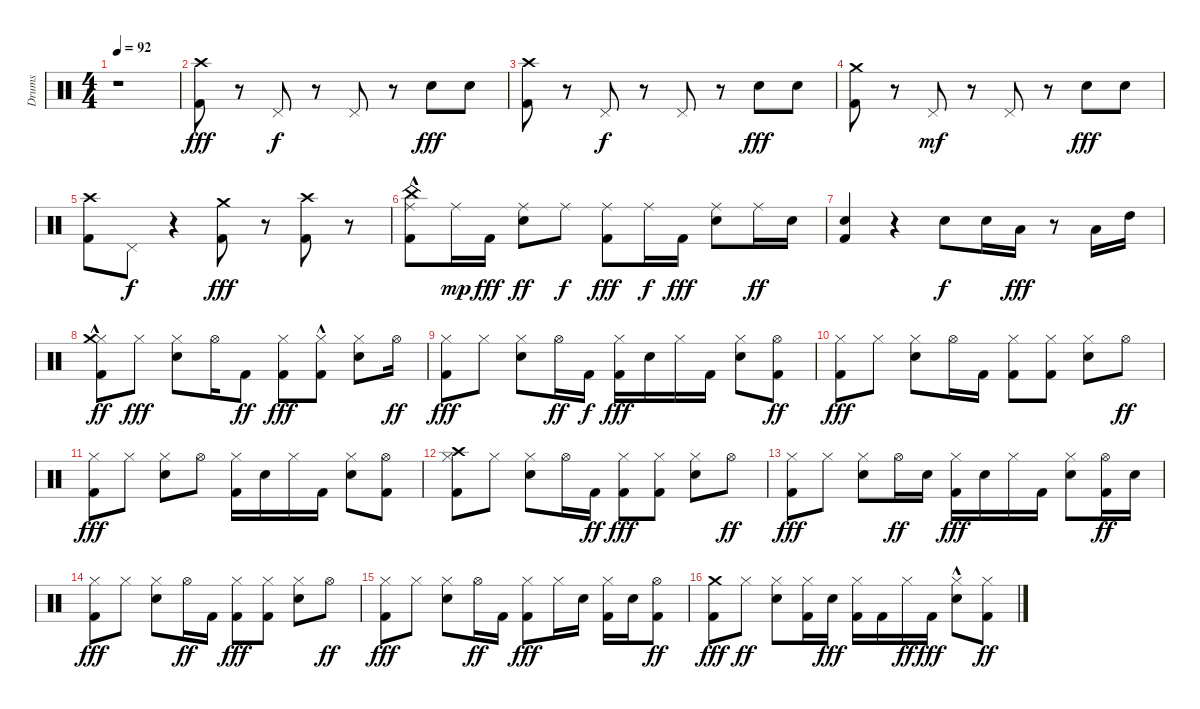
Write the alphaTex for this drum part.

\track ("Drums" "Drums") {instrument percussion}
\staff {score}
\articulation defaults
\ts (4 4)
\tempo 92
\clef neutral
\ks c
r.1{dy fff} |
("Kick (hit) 2" "Crash high (hit)").8 r.8 "Pedal Hi-Hat (hit)".8{dy f} r.8 "Pedal Hi-Hat (hit)".8 r.8 "Snare (hit) 2".8{dy fff} "Snare (hit) 2".8 |
("Kick (hit) 2" "Crash high (hit)").8 r.8 "Pedal Hi-Hat (hit)".8{dy f} r.8 "Pedal Hi-Hat (hit)".8 r.8 "Snare (hit) 2".8{dy fff} "Snare (hit) 2".8 |
("Kick (hit) 2" "Crash medium (hit)").8 r.8 "Pedal Hi-Hat (hit)".8{dy mf} r.8 "Pedal Hi-Hat (hit)".8 r.8 "Snare (hit) 2".8{dy fff} "Snare (hit) 2".8 |
("Kick (hit) 2" "Crash high (hit)").8 "Pedal Hi-Hat (hit)".8{dy f} r.4 ("Kick (hit) 2" "Crash medium (hit)").8{dy fff} r.8 ("Kick (hit) 2" "Crash high (hit)").8 r.8 |
("Kick (hit) 2"{hac} "Ride (middle)" "China (hit)").8 "Ride (middle)".16{dy mp} "Kick (hit) 2".16{dy fff} ("Snare (hit) 2" "Ride (middle)").8{dy ff} "Ride (middle)".8{dy f} ("Kick (hit) 2" "Ride (middle)").8{dy fff} "Ride (middle)".16{dy f} "Kick (hit) 2".16{dy fff} ("Snare (hit) 2" "Ride (middle)").8 "Ride (middle)".16{dy ff} "Snare (hit) 2".16 |
("Kick (hit) 2" "Snare (hit) 2").4 r.4 "Snare (hit) 2".8{dy f} "Snare (hit) 2".16 "Low Tom (hit)".16{dy fff} r.8 "Low Floor Tom (hit)".16 "High Tom (hit)".16 |
("Kick (hit) 2" "Hi-Hat (closed)" "Crash medium (hit)"{hac}).8{dy ff} "Hi-Hat (closed)".8{dy fff} ("Snare (hit) 2" "Hi-Hat (closed)").8 "Hi-Hat (open)".16 "Kick (hit) 2".8{dy ff} ("Kick (hit) 2" "Hi-Hat (closed)").8{dy fff} ("Kick (hit) 2"{hac} "Hi-Hat (closed)").8 ("Snare (hit) 2" "Hi-Hat (closed)").8 "Hi-Hat (open)".16{dy ff} |
("Kick (hit) 2" "Hi-Hat (closed)").8{dy fff} "Hi-Hat (closed)".8 ("Snare (hit) 2" "Hi-Hat (closed)").8 "Hi-Hat (open)".16{dy ff} "Kick (hit) 2".16{dy f} ("Kick (hit) 2" "Hi-Hat (closed)").16{dy fff} "Snare (hit) 2".16 "Hi-Hat (closed)".16 "Kick (hit) 2".16 ("Snare (hit) 2" "Hi-Hat (closed)").8 ("Kick (hit) 2" "Hi-Hat (open)").8{dy ff} |
("Kick (hit) 2" "Hi-Hat (closed)").8{dy fff} "Hi-Hat (closed)".8 ("Snare (hit) 2" "Hi-Hat (closed)").8 "Hi-Hat (open)".16 "Kick (hit) 2".16 ("Kick (hit) 2" "Hi-Hat (closed)").8 ("Kick (hit) 2" "Hi-Hat (closed)").8 ("Snare (hit) 2" "Hi-Hat (closed)").8 "Hi-Hat (open)".8{dy ff} |
("Kick (hit) 2" "Hi-Hat (closed)").8{dy fff} "Hi-Hat (closed)".8 ("Snare (hit) 2" "Hi-Hat (closed)").8 "Hi-Hat (open)".8 ("Kick (hit) 2" "Hi-Hat (closed)").16 "Snare (hit) 2".16 "Hi-Hat (closed)".16 "Kick (hit) 2".16 ("Snare (hit) 2" "Hi-Hat (closed)").8 ("Kick (hit) 2" "Hi-Hat (open)").8 |
("Kick (hit) 2" "Hi-Hat (closed)" "Crash high (hit)").8 "Hi-Hat (closed)".8 ("Snare (hit) 2" "Hi-Hat (closed)").8 "Hi-Hat (open)".16 "Kick (hit) 2".16{dy ff} ("Kick (hit) 2" "Hi-Hat (closed)").8{dy fff} ("Kick (hit) 2" "Hi-Hat (closed)").8 ("Snare (hit) 2" "Hi-Hat (closed)").8 "Hi-Hat (open)".8{dy ff} |
("Kick (hit) 2" "Hi-Hat (closed)").8{dy fff} "Hi-Hat (closed)".8 ("Snare (hit) 2" "Hi-Hat (closed)").8 "Hi-Hat (open)".16{dy ff} "Snare (hit) 2".16 ("Kick (hit) 2" "Hi-Hat (closed)").16{dy fff} "Snare (hit) 2".16 "Hi-Hat (closed)".16 "Kick (hit) 2".16 ("Snare (hit) 2" "Hi-Hat (closed)").8 ("Kick (hit) 2" "Hi-Hat (open)").16{dy ff} "Snare (hit) 2".16 |
("Kick (hit) 2" "Hi-Hat (closed)").8{dy fff} "Hi-Hat (closed)".8 ("Snare (hit) 2" "Hi-Hat (closed)").8 "Hi-Hat (open)".16{dy ff} "Kick (hit) 2".16 ("Kick (hit) 2" "Hi-Hat (closed)").8{dy fff} ("Kick (hit) 2" "Hi-Hat (closed)").8 ("Snare (hit) 2" "Hi-Hat (closed)").8 "Hi-Hat (open)".8{dy ff} |
("Kick (hit) 2" "Hi-Hat (closed)").8{dy fff} "Hi-Hat (closed)".8 ("Snare (hit) 2" "Hi-Hat (closed)").8 "Hi-Hat (open)".16{dy ff} "Kick (hit) 2".16 ("Kick (hit) 2" "Hi-Hat (closed)").8{dy fff} "Hi-Hat (closed)".16 "Snare (hit) 2".16 ("Kick (hit) 2" "Hi-Hat (closed)").16 "Snare (hit) 2".16 ("Kick (hit) 2" "Hi-Hat (open)").8{dy ff} |
("Kick (hit) 2" "Crash medium (hit)").8{dy fff} "Hi-Hat (closed)".8{dy ff} ("Snare (hit) 2" "Hi-Hat (closed)").8 ("Kick (hit) 2" "Hi-Hat (closed)").16 "Snare (hit) 2".16{dy fff} ("Kick (hit) 2" "Hi-Hat (closed)").16 "Kick (hit) 2".16 "Hi-Hat (closed)".16{dy ff} "Kick (hit) 2".16{dy fff} ("Snare (hit) 2"{hac} "Hi-Hat (closed)").8 ("Kick (hit) 2" "Hi-Hat (closed)").8{dy ff}
